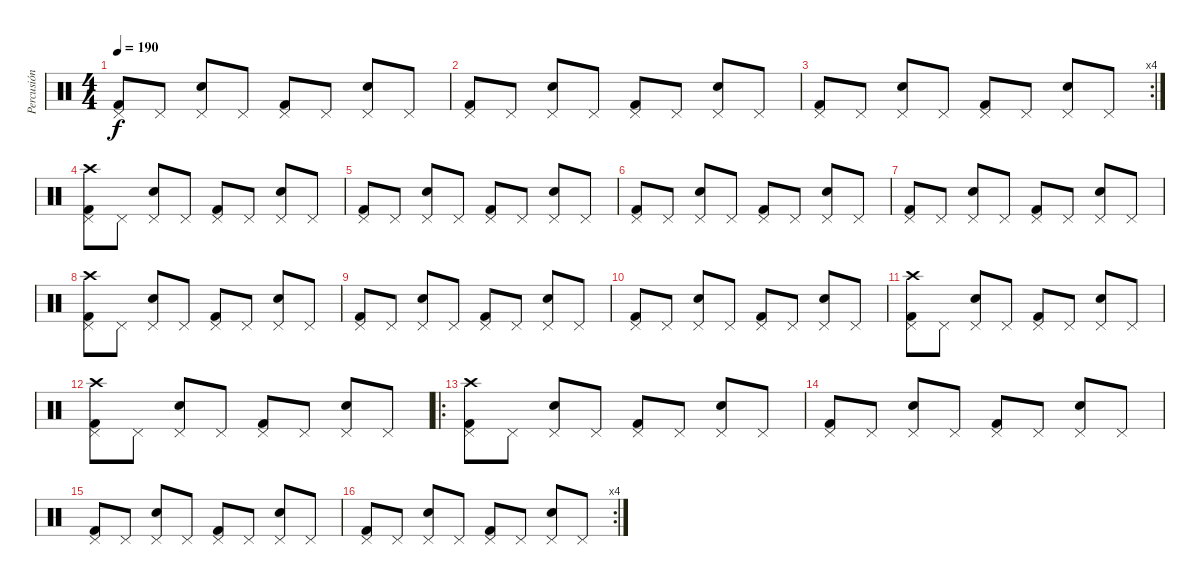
\track ("Percusión" "Percusión") {instrument percussion}
\staff {score}
\articulation defaults
\ts (4 4)
\tempo 190
\clef neutral
\ks c
("Pedal Hi-Hat (hit)" "Kick (hit) 2").8{dy f} "Pedal Hi-Hat (hit)".8 ("Pedal Hi-Hat (hit)" "Electric Snare (hit)").8 "Pedal Hi-Hat (hit)".8 ("Pedal Hi-Hat (hit)" "Kick (hit) 2").8 "Pedal Hi-Hat (hit)".8 ("Pedal Hi-Hat (hit)" "Electric Snare (hit)").8 "Pedal Hi-Hat (hit)".8 |
("Pedal Hi-Hat (hit)" "Kick (hit) 2").8 "Pedal Hi-Hat (hit)".8 ("Pedal Hi-Hat (hit)" "Electric Snare (hit)").8 "Pedal Hi-Hat (hit)".8 ("Pedal Hi-Hat (hit)" "Kick (hit) 2").8 "Pedal Hi-Hat (hit)".8 ("Pedal Hi-Hat (hit)" "Electric Snare (hit)").8 "Pedal Hi-Hat (hit)".8 |
\rc 4
("Pedal Hi-Hat (hit)" "Kick (hit) 2").8 "Pedal Hi-Hat (hit)".8 ("Pedal Hi-Hat (hit)" "Electric Snare (hit)").8 "Pedal Hi-Hat (hit)".8 ("Pedal Hi-Hat (hit)" "Kick (hit) 2").8 "Pedal Hi-Hat (hit)".8 ("Pedal Hi-Hat (hit)" "Electric Snare (hit)").8 "Pedal Hi-Hat (hit)".8 |
("Pedal Hi-Hat (hit)" "Kick (hit) 2" "Crash high (hit)").8 "Pedal Hi-Hat (hit)".8 ("Pedal Hi-Hat (hit)" "Electric Snare (hit)").8 "Pedal Hi-Hat (hit)".8 ("Pedal Hi-Hat (hit)" "Kick (hit) 2").8 "Pedal Hi-Hat (hit)".8 ("Pedal Hi-Hat (hit)" "Electric Snare (hit)").8 "Pedal Hi-Hat (hit)".8 |
("Pedal Hi-Hat (hit)" "Kick (hit) 2").8 "Pedal Hi-Hat (hit)".8 ("Pedal Hi-Hat (hit)" "Electric Snare (hit)").8 "Pedal Hi-Hat (hit)".8 ("Pedal Hi-Hat (hit)" "Kick (hit) 2").8 "Pedal Hi-Hat (hit)".8 ("Pedal Hi-Hat (hit)" "Electric Snare (hit)").8 "Pedal Hi-Hat (hit)".8 |
("Pedal Hi-Hat (hit)" "Kick (hit) 2").8 "Pedal Hi-Hat (hit)".8 ("Pedal Hi-Hat (hit)" "Electric Snare (hit)").8 "Pedal Hi-Hat (hit)".8 ("Pedal Hi-Hat (hit)" "Kick (hit) 2").8 "Pedal Hi-Hat (hit)".8 ("Pedal Hi-Hat (hit)" "Electric Snare (hit)").8 "Pedal Hi-Hat (hit)".8 |
("Pedal Hi-Hat (hit)" "Kick (hit) 2").8 "Pedal Hi-Hat (hit)".8 ("Pedal Hi-Hat (hit)" "Electric Snare (hit)").8 "Pedal Hi-Hat (hit)".8 ("Pedal Hi-Hat (hit)" "Kick (hit) 2").8 "Pedal Hi-Hat (hit)".8 ("Pedal Hi-Hat (hit)" "Electric Snare (hit)").8 "Pedal Hi-Hat (hit)".8 |
("Pedal Hi-Hat (hit)" "Kick (hit) 2" "Crash high (hit)").8 "Pedal Hi-Hat (hit)".8 ("Pedal Hi-Hat (hit)" "Electric Snare (hit)").8 "Pedal Hi-Hat (hit)".8 ("Pedal Hi-Hat (hit)" "Kick (hit) 2").8 "Pedal Hi-Hat (hit)".8 ("Pedal Hi-Hat (hit)" "Electric Snare (hit)").8 "Pedal Hi-Hat (hit)".8 |
("Pedal Hi-Hat (hit)" "Kick (hit) 2").8 "Pedal Hi-Hat (hit)".8 ("Pedal Hi-Hat (hit)" "Electric Snare (hit)").8 "Pedal Hi-Hat (hit)".8 ("Pedal Hi-Hat (hit)" "Kick (hit) 2").8 "Pedal Hi-Hat (hit)".8 ("Pedal Hi-Hat (hit)" "Electric Snare (hit)").8 "Pedal Hi-Hat (hit)".8 |
("Pedal Hi-Hat (hit)" "Kick (hit) 2").8 "Pedal Hi-Hat (hit)".8 ("Pedal Hi-Hat (hit)" "Electric Snare (hit)").8 "Pedal Hi-Hat (hit)".8 ("Pedal Hi-Hat (hit)" "Kick (hit) 2").8 "Pedal Hi-Hat (hit)".8 ("Pedal Hi-Hat (hit)" "Electric Snare (hit)").8 "Pedal Hi-Hat (hit)".8 |
("Pedal Hi-Hat (hit)" "Kick (hit) 2" "Crash high (hit)").8 "Pedal Hi-Hat (hit)".8 ("Pedal Hi-Hat (hit)" "Electric Snare (hit)").8 "Pedal Hi-Hat (hit)".8 ("Pedal Hi-Hat (hit)" "Kick (hit) 2").8 "Pedal Hi-Hat (hit)".8 ("Pedal Hi-Hat (hit)" "Electric Snare (hit)").8 "Pedal Hi-Hat (hit)".8 |
("Pedal Hi-Hat (hit)" "Kick (hit) 2" "Crash high (hit)").8 "Pedal Hi-Hat (hit)".8 ("Pedal Hi-Hat (hit)" "Electric Snare (hit)").8 "Pedal Hi-Hat (hit)".8 ("Pedal Hi-Hat (hit)" "Kick (hit) 2").8 "Pedal Hi-Hat (hit)".8 ("Pedal Hi-Hat (hit)" "Electric Snare (hit)").8 "Pedal Hi-Hat (hit)".8 |
\ro
("Pedal Hi-Hat (hit)" "Kick (hit) 2" "Crash high (hit)").8 "Pedal Hi-Hat (hit)".8 ("Pedal Hi-Hat (hit)" "Electric Snare (hit)").8 "Pedal Hi-Hat (hit)".8 ("Pedal Hi-Hat (hit)" "Kick (hit) 2").8 "Pedal Hi-Hat (hit)".8 ("Pedal Hi-Hat (hit)" "Electric Snare (hit)").8 "Pedal Hi-Hat (hit)".8 |
("Pedal Hi-Hat (hit)" "Kick (hit) 2").8 "Pedal Hi-Hat (hit)".8 ("Pedal Hi-Hat (hit)" "Electric Snare (hit)").8 "Pedal Hi-Hat (hit)".8 ("Pedal Hi-Hat (hit)" "Kick (hit) 2").8 "Pedal Hi-Hat (hit)".8 ("Pedal Hi-Hat (hit)" "Electric Snare (hit)").8 "Pedal Hi-Hat (hit)".8 |
("Pedal Hi-Hat (hit)" "Kick (hit) 2").8 "Pedal Hi-Hat (hit)".8 ("Pedal Hi-Hat (hit)" "Electric Snare (hit)").8 "Pedal Hi-Hat (hit)".8 ("Pedal Hi-Hat (hit)" "Kick (hit) 2").8 "Pedal Hi-Hat (hit)".8 ("Pedal Hi-Hat (hit)" "Electric Snare (hit)").8 "Pedal Hi-Hat (hit)".8 |
\rc 4
("Pedal Hi-Hat (hit)" "Kick (hit) 2").8 "Pedal Hi-Hat (hit)".8 ("Pedal Hi-Hat (hit)" "Electric Snare (hit)").8 "Pedal Hi-Hat (hit)".8 ("Pedal Hi-Hat (hit)" "Kick (hit) 2").8 "Pedal Hi-Hat (hit)".8 ("Pedal Hi-Hat (hit)" "Electric Snare (hit)").8 "Pedal Hi-Hat (hit)".8
